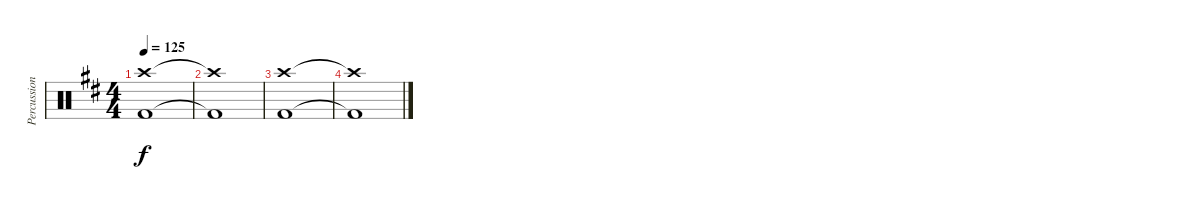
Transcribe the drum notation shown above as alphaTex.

\track ("Percussion" "Percussion") {instrument percussion}
\staff {score}
\articulation defaults
\ts (4 4)
\tempo 125
\clef neutral
\ks d
("Crash high (hit)" "Kick (hit) 2").1{dy f} |
("Crash high (hit)"{t} "Kick (hit) 2"{t}).1 |
("Crash high (hit)" "Kick (hit) 2").1 |
("Crash high (hit)"{t} "Kick (hit) 2"{t}).1
